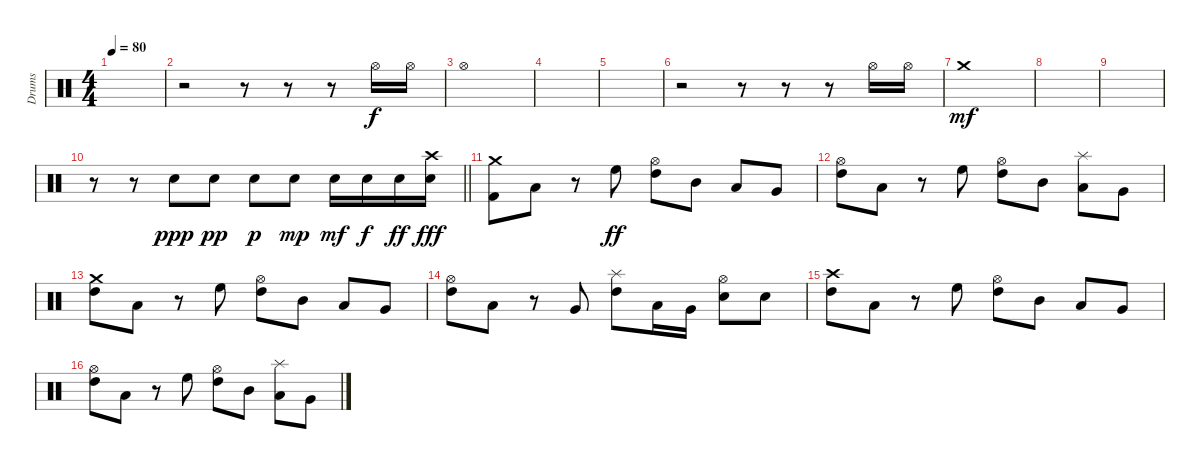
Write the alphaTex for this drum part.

\track ("Drums" "Drums") {instrument percussion}
\staff {score}
\articulation defaults
\ts (4 4)
\tempo 80
\clef neutral
\ks c
|
r.2 r.8 r.8 r.8 "Hi-Hat (open)".16{dy f} "Hi-Hat (open)".16 |
"Hi-Hat (open)".1 |
|
|
r.2 r.8 r.8 r.8 "Hi-Hat (open)".16 "Hi-Hat (open)".16 |
"Crash medium (hit)".1{dy mf} |
|
|
\barLineRight lightlight
r.8 r.8 "Electric Snare (hit)".8{dy ppp} "Electric Snare (hit)".8{dy pp} "Electric Snare (hit)".8{dy p} "Electric Snare (hit)".8{dy mp} "Electric Snare (hit)".16{dy mf} "Electric Snare (hit)".16{dy f} "Electric Snare (hit)".16{dy ff} ("Electric Snare (hit)" "Crash high (hit)").16{dy fff} |
("Kick (hit) 2" "Crash medium (hit)").8 "Low Floor Tom (hit)".8 r.8 "High Floor Tom (hit)".8{dy ff} ("High Tom (hit)" "Hi-Hat (open)").8 "Mid Tom (hit)".8 "Low Tom (hit)".8 "Very Low Tom (hit)".8 |
("High Tom (hit)" "Hi-Hat (open)").8 "Low Tom (hit)".8 r.8 "High Floor Tom (hit)".8 ("High Tom (hit)" "Hi-Hat (open)").8 "Mid Tom (hit)".8 ("Low Tom (hit)" "Splash (hit)").8 "Very Low Tom (hit)".8 |
("High Tom (hit)" "Crash medium (hit)").8 "Low Tom (hit)".8 r.8 "High Floor Tom (hit)".8 ("High Tom (hit)" "Hi-Hat (open)").8 "Mid Tom (hit)".8 "Low Tom (hit)".8 "Very Low Tom (hit)".8 |
("High Tom (hit)" "Hi-Hat (open)").8 "Low Tom (hit)".8 r.8 "Very Low Tom (hit)".8 ("High Tom (hit)" "Splash (hit)").8 "Low Tom (hit)".16 "Very Low Tom (hit)".16 ("Electric Snare (hit)" "Hi-Hat (open)").8 "Electric Snare (hit)".8 |
("High Tom (hit)" "Crash high (hit)").8 "Low Tom (hit)".8 r.8 "High Floor Tom (hit)".8 ("High Tom (hit)" "Hi-Hat (open)").8 "Mid Tom (hit)".8 "Low Tom (hit)".8 "Very Low Tom (hit)".8 |
("High Tom (hit)" "Hi-Hat (open)").8 "Low Tom (hit)".8 r.8 "High Floor Tom (hit)".8 ("High Tom (hit)" "Hi-Hat (open)").8 "Mid Tom (hit)".8 ("Low Tom (hit)" "Splash (hit)").8 "Very Low Tom (hit)".8
